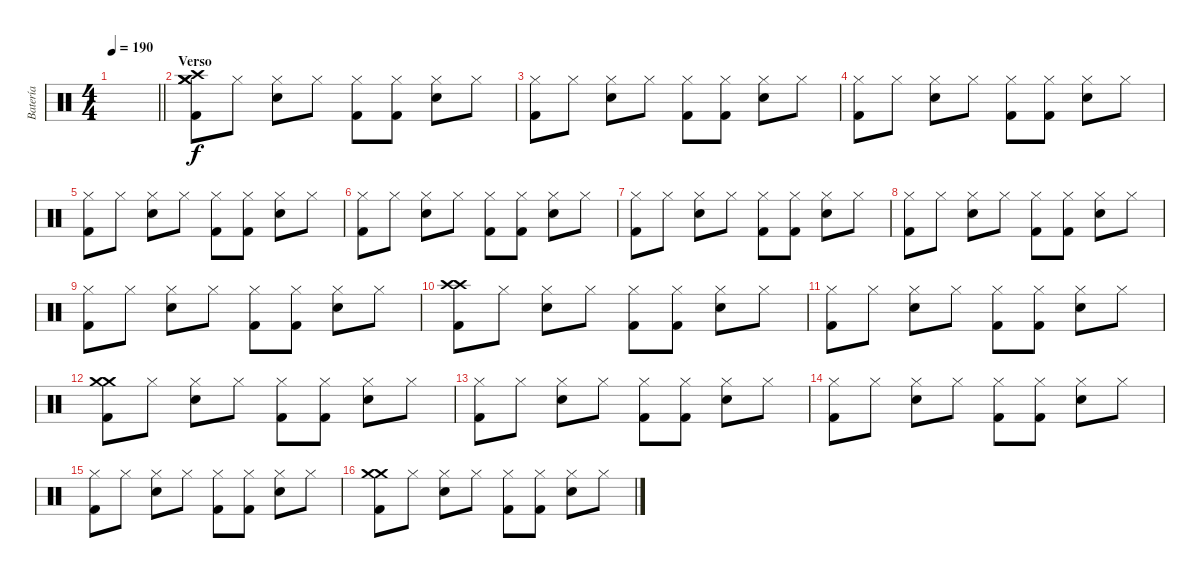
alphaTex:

\track ("Batería" "Batería") {instrument percussion}
\staff {score}
\articulation defaults
\ts (4 4)
\tempo 190
\clef neutral
\barLineRight lightlight
\ks c
|
\section ("" "Verso")
("Crash medium (hit)" "Crash high (hit)" "Crash medium (hit)" "Kick (hit) 2").8 "Hi-Hat (closed)".8 ("Hi-Hat (closed)" "Snare (hit) 2").8 "Hi-Hat (closed)".8 ("Hi-Hat (closed)" "Kick (hit) 2").8 ("Hi-Hat (closed)" "Kick (hit) 2").8 ("Hi-Hat (closed)" "Snare (hit) 2").8 "Hi-Hat (closed)".8 |
("Hi-Hat (closed)" "Kick (hit) 2").8 "Hi-Hat (closed)".8 ("Hi-Hat (closed)" "Snare (hit) 2").8 "Hi-Hat (closed)".8 ("Hi-Hat (closed)" "Kick (hit) 2").8 ("Hi-Hat (closed)" "Kick (hit) 2").8 ("Hi-Hat (closed)" "Snare (hit) 2").8 "Hi-Hat (closed)".8 |
("Hi-Hat (closed)" "Kick (hit) 2").8 "Hi-Hat (closed)".8 ("Hi-Hat (closed)" "Snare (hit) 2").8 "Hi-Hat (closed)".8 ("Hi-Hat (closed)" "Kick (hit) 2").8 ("Hi-Hat (closed)" "Kick (hit) 2").8 ("Hi-Hat (closed)" "Snare (hit) 2").8 "Hi-Hat (closed)".8 |
("Hi-Hat (closed)" "Kick (hit) 2").8 "Hi-Hat (closed)".8 ("Hi-Hat (closed)" "Snare (hit) 2").8 "Hi-Hat (closed)".8 ("Hi-Hat (closed)" "Kick (hit) 2").8 ("Hi-Hat (closed)" "Kick (hit) 2").8 ("Hi-Hat (closed)" "Snare (hit) 2").8 "Hi-Hat (closed)".8 |
("Hi-Hat (closed)" "Kick (hit) 2").8 "Hi-Hat (closed)".8 ("Hi-Hat (closed)" "Snare (hit) 2").8 "Hi-Hat (closed)".8 ("Hi-Hat (closed)" "Kick (hit) 2").8 ("Hi-Hat (closed)" "Kick (hit) 2").8 ("Hi-Hat (closed)" "Snare (hit) 2").8 "Hi-Hat (closed)".8 |
("Hi-Hat (closed)" "Kick (hit) 2").8 "Hi-Hat (closed)".8 ("Hi-Hat (closed)" "Snare (hit) 2").8 "Hi-Hat (closed)".8 ("Hi-Hat (closed)" "Kick (hit) 2").8 ("Hi-Hat (closed)" "Kick (hit) 2").8 ("Hi-Hat (closed)" "Snare (hit) 2").8 "Hi-Hat (closed)".8 |
("Hi-Hat (closed)" "Kick (hit) 2").8 "Hi-Hat (closed)".8 ("Hi-Hat (closed)" "Snare (hit) 2").8 "Hi-Hat (closed)".8 ("Hi-Hat (closed)" "Kick (hit) 2").8 ("Hi-Hat (closed)" "Kick (hit) 2").8 ("Hi-Hat (closed)" "Snare (hit) 2").8 "Hi-Hat (closed)".8 |
("Hi-Hat (closed)" "Kick (hit) 2").8 "Hi-Hat (closed)".8 ("Hi-Hat (closed)" "Snare (hit) 2").8 "Hi-Hat (closed)".8 ("Hi-Hat (closed)" "Kick (hit) 2").8 ("Hi-Hat (closed)" "Kick (hit) 2").8 ("Hi-Hat (closed)" "Snare (hit) 2").8 "Hi-Hat (closed)".8 |
("Crash high (hit)" "Crash high (hit)" "Kick (hit) 2").8 "Hi-Hat (closed)".8 ("Hi-Hat (closed)" "Snare (hit) 2").8 "Hi-Hat (closed)".8 ("Hi-Hat (closed)" "Kick (hit) 2").8 ("Hi-Hat (closed)" "Kick (hit) 2").8 ("Hi-Hat (closed)" "Snare (hit) 2").8 "Hi-Hat (closed)".8 |
("Hi-Hat (closed)" "Kick (hit) 2").8 "Hi-Hat (closed)".8 ("Hi-Hat (closed)" "Snare (hit) 2").8 "Hi-Hat (closed)".8 ("Hi-Hat (closed)" "Kick (hit) 2").8 ("Hi-Hat (closed)" "Kick (hit) 2").8 ("Hi-Hat (closed)" "Snare (hit) 2").8 "Hi-Hat (closed)".8 |
("Crash medium (hit)" "Crash medium (hit)" "Kick (hit) 2").8 "Hi-Hat (closed)".8 ("Hi-Hat (closed)" "Snare (hit) 2").8 "Hi-Hat (closed)".8 ("Hi-Hat (closed)" "Kick (hit) 2").8 ("Hi-Hat (closed)" "Kick (hit) 2").8 ("Hi-Hat (closed)" "Snare (hit) 2").8 "Hi-Hat (closed)".8 |
("Hi-Hat (closed)" "Kick (hit) 2").8 "Hi-Hat (closed)".8 ("Hi-Hat (closed)" "Snare (hit) 2").8 "Hi-Hat (closed)".8 ("Hi-Hat (closed)" "Kick (hit) 2").8 ("Hi-Hat (closed)" "Kick (hit) 2").8 ("Hi-Hat (closed)" "Snare (hit) 2").8 "Hi-Hat (closed)".8 |
("Hi-Hat (closed)" "Kick (hit) 2").8 "Hi-Hat (closed)".8 ("Hi-Hat (closed)" "Snare (hit) 2").8 "Hi-Hat (closed)".8 ("Hi-Hat (closed)" "Kick (hit) 2").8 ("Hi-Hat (closed)" "Kick (hit) 2").8 ("Hi-Hat (closed)" "Snare (hit) 2").8 "Hi-Hat (closed)".8 |
("Hi-Hat (closed)" "Kick (hit) 2").8 "Hi-Hat (closed)".8 ("Hi-Hat (closed)" "Snare (hit) 2").8 "Hi-Hat (closed)".8 ("Hi-Hat (closed)" "Kick (hit) 2").8 ("Hi-Hat (closed)" "Kick (hit) 2").8 ("Hi-Hat (closed)" "Snare (hit) 2").8 "Hi-Hat (closed)".8 |
("Crash medium (hit)" "Crash medium (hit)" "Kick (hit) 2").8 "Hi-Hat (closed)".8 ("Hi-Hat (closed)" "Snare (hit) 2").8 "Hi-Hat (closed)".8 ("Hi-Hat (closed)" "Kick (hit) 2").8 ("Hi-Hat (closed)" "Kick (hit) 2").8 ("Hi-Hat (closed)" "Snare (hit) 2").8 "Hi-Hat (closed)".8
